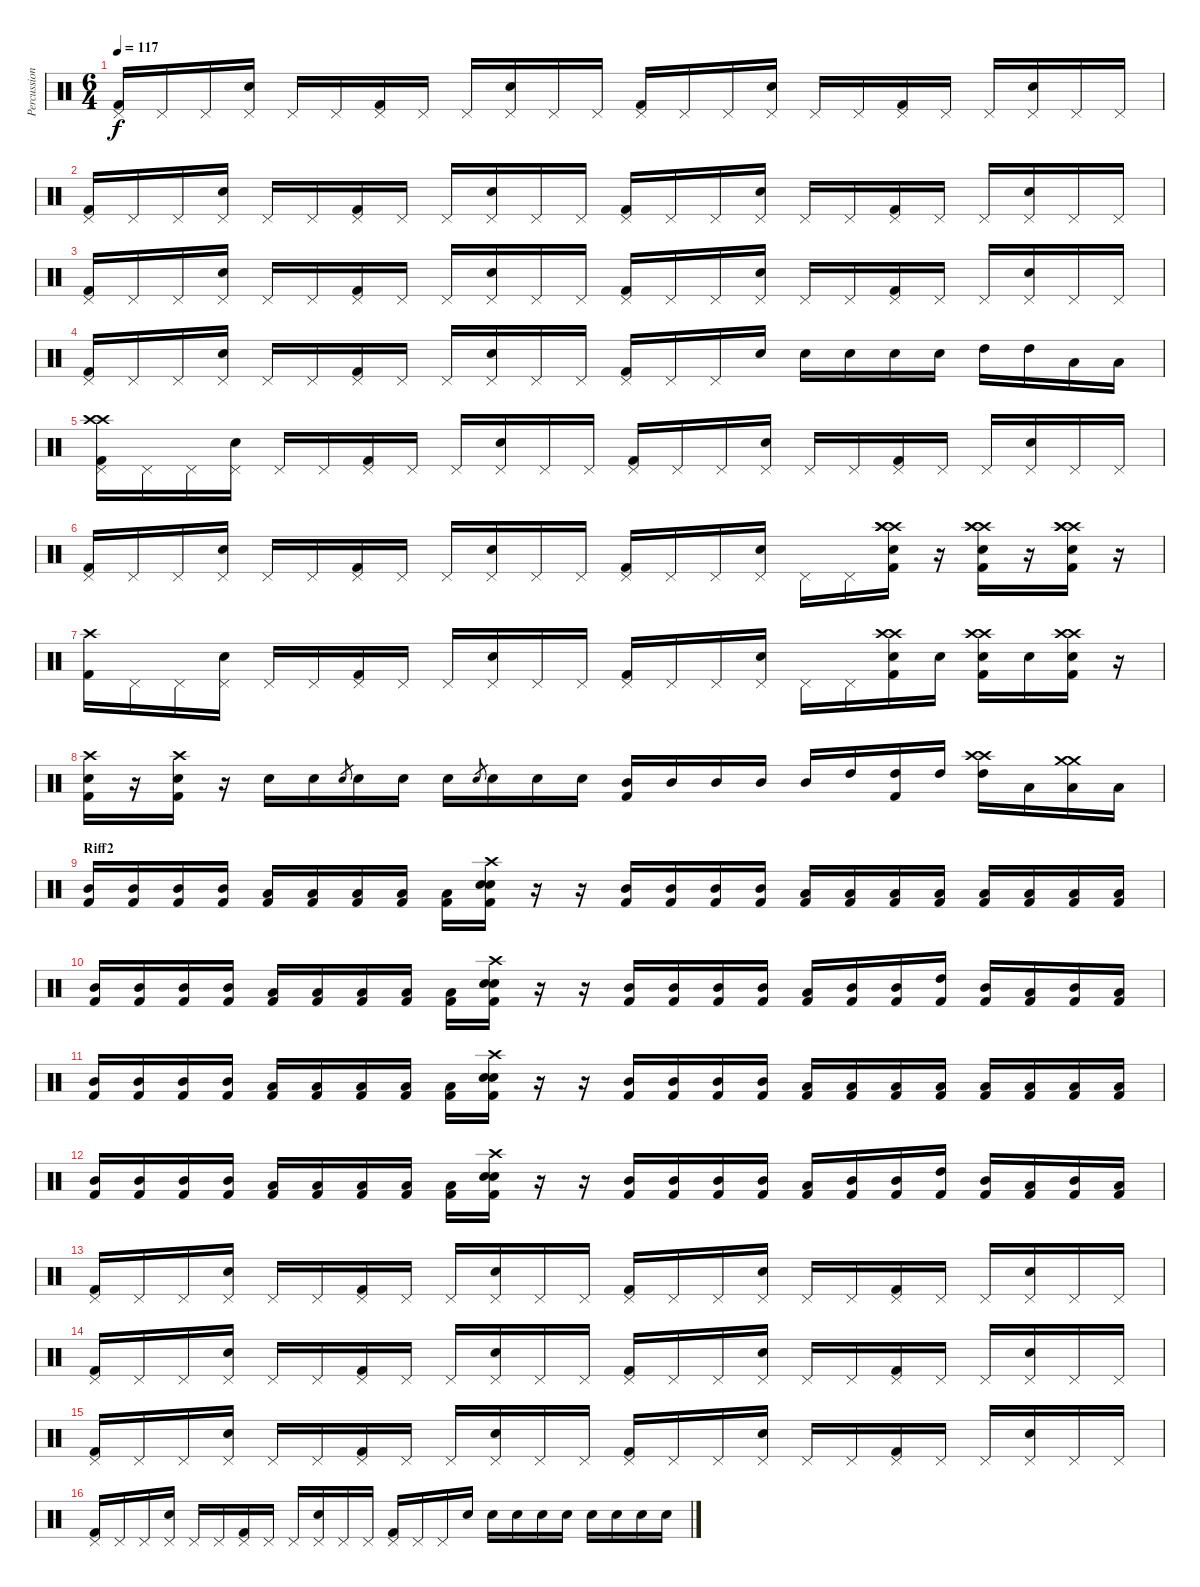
\track ("Percussions" "Percussion") {instrument percussion}
\staff {score}
\articulation defaults
\ts (6 4)
\tempo 117
\clef neutral
\ks c
("Pedal Hi-Hat (hit)" "Kick (hit) 2").16{dy f} "Pedal Hi-Hat (hit)".16 "Pedal Hi-Hat (hit)".16 ("Pedal Hi-Hat (hit)" "Electric Snare (hit)").16 "Pedal Hi-Hat (hit)".16 "Pedal Hi-Hat (hit)".16 ("Pedal Hi-Hat (hit)" "Kick (hit) 2").16 "Pedal Hi-Hat (hit)".16 "Pedal Hi-Hat (hit)".16 ("Pedal Hi-Hat (hit)" "Electric Snare (hit)").16 "Pedal Hi-Hat (hit)".16 "Pedal Hi-Hat (hit)".16 ("Pedal Hi-Hat (hit)" "Kick (hit) 2").16 "Pedal Hi-Hat (hit)".16 "Pedal Hi-Hat (hit)".16 ("Pedal Hi-Hat (hit)" "Electric Snare (hit)").16 "Pedal Hi-Hat (hit)".16 "Pedal Hi-Hat (hit)".16 ("Pedal Hi-Hat (hit)" "Kick (hit) 2").16 "Pedal Hi-Hat (hit)".16 "Pedal Hi-Hat (hit)".16 ("Pedal Hi-Hat (hit)" "Electric Snare (hit)").16 "Pedal Hi-Hat (hit)".16 "Pedal Hi-Hat (hit)".16 |
("Pedal Hi-Hat (hit)" "Kick (hit) 2").16 "Pedal Hi-Hat (hit)".16 "Pedal Hi-Hat (hit)".16 ("Pedal Hi-Hat (hit)" "Electric Snare (hit)").16 "Pedal Hi-Hat (hit)".16 "Pedal Hi-Hat (hit)".16 ("Pedal Hi-Hat (hit)" "Kick (hit) 2").16 "Pedal Hi-Hat (hit)".16 "Pedal Hi-Hat (hit)".16 ("Pedal Hi-Hat (hit)" "Electric Snare (hit)").16 "Pedal Hi-Hat (hit)".16 "Pedal Hi-Hat (hit)".16 ("Pedal Hi-Hat (hit)" "Kick (hit) 2").16 "Pedal Hi-Hat (hit)".16 "Pedal Hi-Hat (hit)".16 ("Pedal Hi-Hat (hit)" "Electric Snare (hit)").16 "Pedal Hi-Hat (hit)".16 "Pedal Hi-Hat (hit)".16 ("Pedal Hi-Hat (hit)" "Kick (hit) 2").16 "Pedal Hi-Hat (hit)".16 "Pedal Hi-Hat (hit)".16 ("Pedal Hi-Hat (hit)" "Electric Snare (hit)").16 "Pedal Hi-Hat (hit)".16 "Pedal Hi-Hat (hit)".16 |
("Pedal Hi-Hat (hit)" "Kick (hit) 2").16 "Pedal Hi-Hat (hit)".16 "Pedal Hi-Hat (hit)".16 ("Pedal Hi-Hat (hit)" "Electric Snare (hit)").16 "Pedal Hi-Hat (hit)".16 "Pedal Hi-Hat (hit)".16 ("Pedal Hi-Hat (hit)" "Kick (hit) 2").16 "Pedal Hi-Hat (hit)".16 "Pedal Hi-Hat (hit)".16 ("Pedal Hi-Hat (hit)" "Electric Snare (hit)").16 "Pedal Hi-Hat (hit)".16 "Pedal Hi-Hat (hit)".16 ("Pedal Hi-Hat (hit)" "Kick (hit) 2").16 "Pedal Hi-Hat (hit)".16 "Pedal Hi-Hat (hit)".16 ("Pedal Hi-Hat (hit)" "Electric Snare (hit)").16 "Pedal Hi-Hat (hit)".16 "Pedal Hi-Hat (hit)".16 ("Pedal Hi-Hat (hit)" "Kick (hit) 2").16 "Pedal Hi-Hat (hit)".16 "Pedal Hi-Hat (hit)".16 ("Pedal Hi-Hat (hit)" "Electric Snare (hit)").16 "Pedal Hi-Hat (hit)".16 "Pedal Hi-Hat (hit)".16 |
("Pedal Hi-Hat (hit)" "Kick (hit) 2").16 "Pedal Hi-Hat (hit)".16 "Pedal Hi-Hat (hit)".16 ("Pedal Hi-Hat (hit)" "Electric Snare (hit)").16 "Pedal Hi-Hat (hit)".16 "Pedal Hi-Hat (hit)".16 ("Pedal Hi-Hat (hit)" "Kick (hit) 2").16 "Pedal Hi-Hat (hit)".16 "Pedal Hi-Hat (hit)".16 ("Pedal Hi-Hat (hit)" "Electric Snare (hit)").16 "Pedal Hi-Hat (hit)".16 "Pedal Hi-Hat (hit)".16 ("Pedal Hi-Hat (hit)" "Kick (hit) 2").16 "Pedal Hi-Hat (hit)".16 "Pedal Hi-Hat (hit)".16 "Electric Snare (hit)".16 "Electric Snare (hit)".16 "Electric Snare (hit)".16 "Electric Snare (hit)".16 "Electric Snare (hit)".16 "High Tom (hit)".16 "High Tom (hit)".16 "Low Tom (hit)".16 "Low Tom (hit)".16 |
("Crash high (hit)" "Crash high (hit)" "Pedal Hi-Hat (hit)" "Kick (hit) 2").16 "Pedal Hi-Hat (hit)".16 "Pedal Hi-Hat (hit)".16 ("Pedal Hi-Hat (hit)" "Electric Snare (hit)").16 "Pedal Hi-Hat (hit)".16 "Pedal Hi-Hat (hit)".16 ("Pedal Hi-Hat (hit)" "Kick (hit) 2").16 "Pedal Hi-Hat (hit)".16 "Pedal Hi-Hat (hit)".16 ("Pedal Hi-Hat (hit)" "Electric Snare (hit)").16 "Pedal Hi-Hat (hit)".16 "Pedal Hi-Hat (hit)".16 ("Pedal Hi-Hat (hit)" "Kick (hit) 2").16 "Pedal Hi-Hat (hit)".16 "Pedal Hi-Hat (hit)".16 ("Pedal Hi-Hat (hit)" "Electric Snare (hit)").16 "Pedal Hi-Hat (hit)".16 "Pedal Hi-Hat (hit)".16 ("Pedal Hi-Hat (hit)" "Kick (hit) 2").16 "Pedal Hi-Hat (hit)".16 "Pedal Hi-Hat (hit)".16 ("Pedal Hi-Hat (hit)" "Electric Snare (hit)").16 "Pedal Hi-Hat (hit)".16 "Pedal Hi-Hat (hit)".16 |
("Pedal Hi-Hat (hit)" "Kick (hit) 2").16 "Pedal Hi-Hat (hit)".16 "Pedal Hi-Hat (hit)".16 ("Pedal Hi-Hat (hit)" "Electric Snare (hit)").16 "Pedal Hi-Hat (hit)".16 "Pedal Hi-Hat (hit)".16 ("Pedal Hi-Hat (hit)" "Kick (hit) 2").16 "Pedal Hi-Hat (hit)".16 "Pedal Hi-Hat (hit)".16 ("Pedal Hi-Hat (hit)" "Electric Snare (hit)").16 "Pedal Hi-Hat (hit)".16 "Pedal Hi-Hat (hit)".16 ("Pedal Hi-Hat (hit)" "Kick (hit) 2").16 "Pedal Hi-Hat (hit)".16 "Pedal Hi-Hat (hit)".16 ("Pedal Hi-Hat (hit)" "Electric Snare (hit)").16 "Pedal Hi-Hat (hit)".16 "Pedal Hi-Hat (hit)".16 ("Crash high (hit)" "Crash high (hit)" "Crash high (hit)" "Electric Snare (hit)" "Kick (hit) 2").16 r.16 ("Crash high (hit)" "Crash high (hit)" "Crash high (hit)" "Electric Snare (hit)" "Kick (hit) 2").16 r.16 ("Crash high (hit)" "Crash high (hit)" "Crash high (hit)" "Electric Snare (hit)" "Kick (hit) 2").16 r.16 |
("Crash high (hit)" "Kick (hit) 2").16 "Pedal Hi-Hat (hit)".16 "Pedal Hi-Hat (hit)".16 ("Pedal Hi-Hat (hit)" "Electric Snare (hit)").16 "Pedal Hi-Hat (hit)".16 "Pedal Hi-Hat (hit)".16 ("Pedal Hi-Hat (hit)" "Kick (hit) 2").16 "Pedal Hi-Hat (hit)".16 "Pedal Hi-Hat (hit)".16 ("Pedal Hi-Hat (hit)" "Electric Snare (hit)").16 "Pedal Hi-Hat (hit)".16 "Pedal Hi-Hat (hit)".16 ("Pedal Hi-Hat (hit)" "Kick (hit) 2").16 "Pedal Hi-Hat (hit)".16 "Pedal Hi-Hat (hit)".16 ("Pedal Hi-Hat (hit)" "Electric Snare (hit)").16 "Pedal Hi-Hat (hit)".16 "Pedal Hi-Hat (hit)".16 ("Crash high (hit)" "Crash high (hit)" "Electric Snare (hit)" "Kick (hit) 2").16 "Electric Snare (hit)".16 ("Crash high (hit)" "Crash high (hit)" "Electric Snare (hit)" "Kick (hit) 2").16 "Electric Snare (hit)".16 ("Crash high (hit)" "Crash high (hit)" "Electric Snare (hit)" "Kick (hit) 2").16 r.16 |
("Crash high (hit)" "Electric Snare (hit)" "Kick (hit) 2").16 r.16 ("Crash high (hit)" "Electric Snare (hit)" "Kick (hit) 2").16 r.16 "Electric Snare (hit)".16 "Electric Snare (hit)".16 "Electric Snare (hit)".8{gr} "Electric Snare (hit)".16 "Electric Snare (hit)".16 "Electric Snare (hit)".16 "Electric Snare (hit)".8{gr} "Electric Snare (hit)".16 "Electric Snare (hit)".16 "Electric Snare (hit)".16 ("Mid Tom (hit)" "Kick (hit) 2").16 "Mid Tom (hit)".16 "Mid Tom (hit)".16 "Mid Tom (hit)".16 "Mid Tom (hit)".16 "High Tom (hit)".16 ("High Tom (hit)" "Kick (hit) 2").16 "High Tom (hit)".16 ("Crash high (hit)" "Crash high (hit)" "High Tom (hit)").16 "Low Tom (hit)".16 ("Crash medium (hit)" "Crash medium (hit)" "Low Tom (hit)").16 "Low Tom (hit)".16 |
\section ("" "Riff2")
("Mid Tom (hit)" "Kick (hit) 2").16 ("Mid Tom (hit)" "Kick (hit) 2").16 ("Mid Tom (hit)" "Kick (hit) 2").16 ("Mid Tom (hit)" "Kick (hit) 2").16 ("Low Tom (hit)" "Kick (hit) 2").16 ("Low Tom (hit)" "Kick (hit) 2").16 ("Low Tom (hit)" "Kick (hit) 2").16 ("Low Floor Tom (hit)" "Kick (hit) 2").16 ("Low Floor Tom (hit)" "Kick (hit) 2").16 ("Crash high (hit)" "Electric Snare (hit)" "Electric Snare (hit)" "Kick (hit) 2").16 r.16 r.16 ("Mid Tom (hit)" "Kick (hit) 2").16 ("Mid Tom (hit)" "Kick (hit) 2").16 ("Mid Tom (hit)" "Kick (hit) 2").16 ("Mid Tom (hit)" "Kick (hit) 2").16 ("Low Tom (hit)" "Kick (hit) 2").16 ("Low Tom (hit)" "Kick (hit) 2").16 ("Low Tom (hit)" "Kick (hit) 2").16 ("Low Floor Tom (hit)" "Kick (hit) 2").16 ("Low Floor Tom (hit)" "Kick (hit) 2").16 ("Low Floor Tom (hit)" "Kick (hit) 2").16 ("Low Floor Tom (hit)" "Kick (hit) 2").16 ("Low Floor Tom (hit)" "Kick (hit) 2").16 |
("Mid Tom (hit)" "Kick (hit) 2").16 ("Mid Tom (hit)" "Kick (hit) 2").16 ("Mid Tom (hit)" "Kick (hit) 2").16 ("Mid Tom (hit)" "Kick (hit) 2").16 ("Low Tom (hit)" "Kick (hit) 2").16 ("Low Tom (hit)" "Kick (hit) 2").16 ("Low Tom (hit)" "Kick (hit) 2").16 ("Low Floor Tom (hit)" "Kick (hit) 2").16 ("Low Floor Tom (hit)" "Kick (hit) 2").16 ("Crash high (hit)" "Electric Snare (hit)" "Electric Snare (hit)" "Kick (hit) 2").16 r.16 r.16 ("Mid Tom (hit)" "Kick (hit) 2").16 ("Mid Tom (hit)" "Kick (hit) 2").16 ("Mid Tom (hit)" "Kick (hit) 2").16 ("Mid Tom (hit)" "Kick (hit) 2").16 ("Low Tom (hit)" "Kick (hit) 2").16 ("Mid Tom (hit)" "Kick (hit) 2").16 ("Mid Tom (hit)" "Kick (hit) 2").16 ("High Tom (hit)" "Kick (hit) 2").16 ("Mid Tom (hit)" "Kick (hit) 2").16 ("Low Tom (hit)" "Kick (hit) 2").16 ("Mid Tom (hit)" "Kick (hit) 2").16 ("Low Tom (hit)" "Kick (hit) 2").16 |
("Mid Tom (hit)" "Kick (hit) 2").16 ("Mid Tom (hit)" "Kick (hit) 2").16 ("Mid Tom (hit)" "Kick (hit) 2").16 ("Mid Tom (hit)" "Kick (hit) 2").16 ("Low Tom (hit)" "Kick (hit) 2").16 ("Low Tom (hit)" "Kick (hit) 2").16 ("Low Tom (hit)" "Kick (hit) 2").16 ("Low Floor Tom (hit)" "Kick (hit) 2").16 ("Low Floor Tom (hit)" "Kick (hit) 2").16 ("Crash high (hit)" "Electric Snare (hit)" "Electric Snare (hit)" "Kick (hit) 2").16 r.16 r.16 ("Mid Tom (hit)" "Kick (hit) 2").16 ("Mid Tom (hit)" "Kick (hit) 2").16 ("Mid Tom (hit)" "Kick (hit) 2").16 ("Mid Tom (hit)" "Kick (hit) 2").16 ("Low Tom (hit)" "Kick (hit) 2").16 ("Low Tom (hit)" "Kick (hit) 2").16 ("Low Tom (hit)" "Kick (hit) 2").16 ("Low Floor Tom (hit)" "Kick (hit) 2").16 ("Low Floor Tom (hit)" "Kick (hit) 2").16 ("Low Floor Tom (hit)" "Kick (hit) 2").16 ("Low Floor Tom (hit)" "Kick (hit) 2").16 ("Low Floor Tom (hit)" "Kick (hit) 2").16 |
("Mid Tom (hit)" "Kick (hit) 2").16 ("Mid Tom (hit)" "Kick (hit) 2").16 ("Mid Tom (hit)" "Kick (hit) 2").16 ("Mid Tom (hit)" "Kick (hit) 2").16 ("Low Tom (hit)" "Kick (hit) 2").16 ("Low Tom (hit)" "Kick (hit) 2").16 ("Low Tom (hit)" "Kick (hit) 2").16 ("Low Floor Tom (hit)" "Kick (hit) 2").16 ("Low Floor Tom (hit)" "Kick (hit) 2").16 ("Crash high (hit)" "Electric Snare (hit)" "Electric Snare (hit)" "Kick (hit) 2").16 r.16 r.16 ("Mid Tom (hit)" "Kick (hit) 2").16 ("Mid Tom (hit)" "Kick (hit) 2").16 ("Mid Tom (hit)" "Kick (hit) 2").16 ("Mid Tom (hit)" "Kick (hit) 2").16 ("Low Tom (hit)" "Kick (hit) 2").16 ("Mid Tom (hit)" "Kick (hit) 2").16 ("Mid Tom (hit)" "Kick (hit) 2").16 ("High Tom (hit)" "Kick (hit) 2").16 ("Mid Tom (hit)" "Kick (hit) 2").16 ("Low Tom (hit)" "Kick (hit) 2").16 ("Mid Tom (hit)" "Kick (hit) 2").16 ("Low Tom (hit)" "Kick (hit) 2").16 |
("Pedal Hi-Hat (hit)" "Kick (hit) 2").16 "Pedal Hi-Hat (hit)".16 "Pedal Hi-Hat (hit)".16 ("Pedal Hi-Hat (hit)" "Electric Snare (hit)").16 "Pedal Hi-Hat (hit)".16 "Pedal Hi-Hat (hit)".16 ("Pedal Hi-Hat (hit)" "Kick (hit) 2").16 "Pedal Hi-Hat (hit)".16 "Pedal Hi-Hat (hit)".16 ("Pedal Hi-Hat (hit)" "Electric Snare (hit)").16 "Pedal Hi-Hat (hit)".16 "Pedal Hi-Hat (hit)".16 ("Pedal Hi-Hat (hit)" "Kick (hit) 2").16 "Pedal Hi-Hat (hit)".16 "Pedal Hi-Hat (hit)".16 ("Pedal Hi-Hat (hit)" "Electric Snare (hit)").16 "Pedal Hi-Hat (hit)".16 "Pedal Hi-Hat (hit)".16 ("Pedal Hi-Hat (hit)" "Kick (hit) 2").16 "Pedal Hi-Hat (hit)".16 "Pedal Hi-Hat (hit)".16 ("Pedal Hi-Hat (hit)" "Electric Snare (hit)").16 "Pedal Hi-Hat (hit)".16 "Pedal Hi-Hat (hit)".16 |
("Pedal Hi-Hat (hit)" "Kick (hit) 2").16 "Pedal Hi-Hat (hit)".16 "Pedal Hi-Hat (hit)".16 ("Pedal Hi-Hat (hit)" "Electric Snare (hit)").16 "Pedal Hi-Hat (hit)".16 "Pedal Hi-Hat (hit)".16 ("Pedal Hi-Hat (hit)" "Kick (hit) 2").16 "Pedal Hi-Hat (hit)".16 "Pedal Hi-Hat (hit)".16 ("Pedal Hi-Hat (hit)" "Electric Snare (hit)").16 "Pedal Hi-Hat (hit)".16 "Pedal Hi-Hat (hit)".16 ("Pedal Hi-Hat (hit)" "Kick (hit) 2").16 "Pedal Hi-Hat (hit)".16 "Pedal Hi-Hat (hit)".16 ("Pedal Hi-Hat (hit)" "Electric Snare (hit)").16 "Pedal Hi-Hat (hit)".16 "Pedal Hi-Hat (hit)".16 ("Pedal Hi-Hat (hit)" "Kick (hit) 2").16 "Pedal Hi-Hat (hit)".16 "Pedal Hi-Hat (hit)".16 ("Pedal Hi-Hat (hit)" "Electric Snare (hit)").16 "Pedal Hi-Hat (hit)".16 "Pedal Hi-Hat (hit)".16 |
("Pedal Hi-Hat (hit)" "Kick (hit) 2").16 "Pedal Hi-Hat (hit)".16 "Pedal Hi-Hat (hit)".16 ("Pedal Hi-Hat (hit)" "Electric Snare (hit)").16 "Pedal Hi-Hat (hit)".16 "Pedal Hi-Hat (hit)".16 ("Pedal Hi-Hat (hit)" "Kick (hit) 2").16 "Pedal Hi-Hat (hit)".16 "Pedal Hi-Hat (hit)".16 ("Pedal Hi-Hat (hit)" "Electric Snare (hit)").16 "Pedal Hi-Hat (hit)".16 "Pedal Hi-Hat (hit)".16 ("Pedal Hi-Hat (hit)" "Kick (hit) 2").16 "Pedal Hi-Hat (hit)".16 "Pedal Hi-Hat (hit)".16 ("Pedal Hi-Hat (hit)" "Electric Snare (hit)").16 "Pedal Hi-Hat (hit)".16 "Pedal Hi-Hat (hit)".16 ("Pedal Hi-Hat (hit)" "Kick (hit) 2").16 "Pedal Hi-Hat (hit)".16 "Pedal Hi-Hat (hit)".16 ("Pedal Hi-Hat (hit)" "Electric Snare (hit)").16 "Pedal Hi-Hat (hit)".16 "Pedal Hi-Hat (hit)".16 |
("Pedal Hi-Hat (hit)" "Kick (hit) 2").16 "Pedal Hi-Hat (hit)".16 "Pedal Hi-Hat (hit)".16 ("Pedal Hi-Hat (hit)" "Electric Snare (hit)").16 "Pedal Hi-Hat (hit)".16 "Pedal Hi-Hat (hit)".16 ("Pedal Hi-Hat (hit)" "Kick (hit) 2").16 "Pedal Hi-Hat (hit)".16 "Pedal Hi-Hat (hit)".16 ("Pedal Hi-Hat (hit)" "Electric Snare (hit)").16 "Pedal Hi-Hat (hit)".16 "Pedal Hi-Hat (hit)".16 ("Pedal Hi-Hat (hit)" "Kick (hit) 2").16 "Pedal Hi-Hat (hit)".16 "Pedal Hi-Hat (hit)".16 "Electric Snare (hit)".16 "Electric Snare (hit)".16 "Electric Snare (hit)".16 "Electric Snare (hit)".16 "Electric Snare (hit)".16 "Electric Snare (hit)".16 "Electric Snare (hit)".16 "Electric Snare (hit)".16 "Electric Snare (hit)".16
